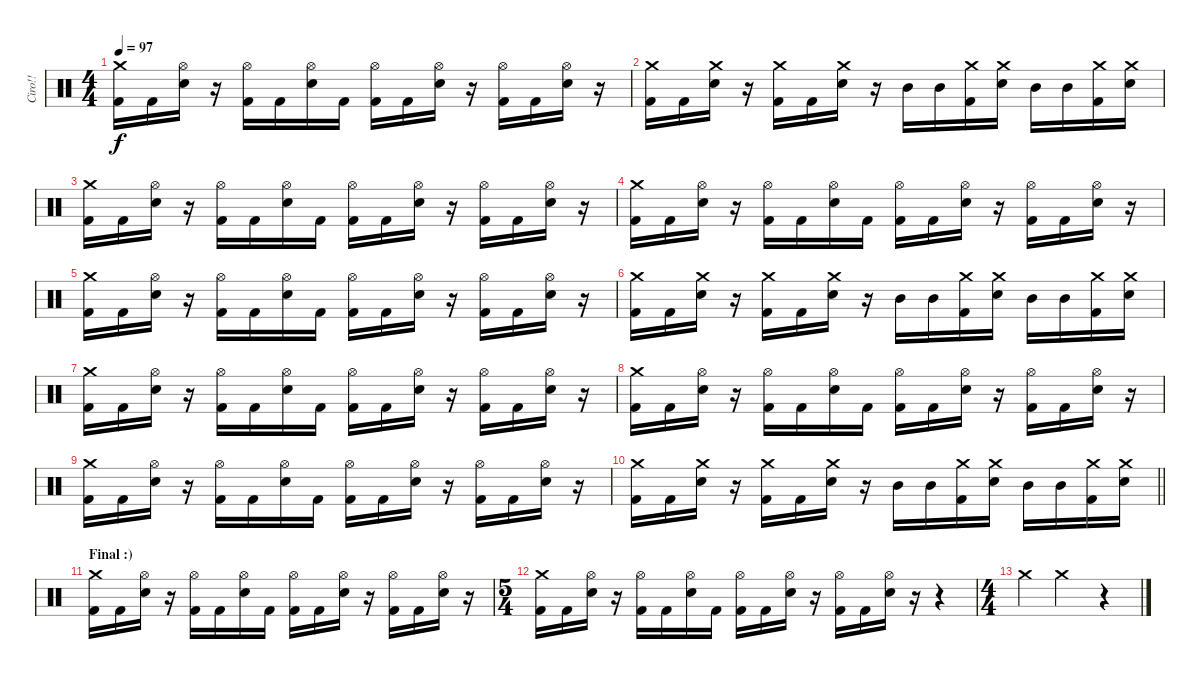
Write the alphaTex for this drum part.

\track ("Ciro!!" "Ciro!!") {instrument percussion}
\staff {score}
\articulation defaults
\ts (4 4)
\tempo 97
\clef neutral
\ks c
("Crash medium (hit)" "Kick (hit) 2").16{dy f} "Kick (hit) 2".16 ("Hi-Hat (open)" "Electric Snare (hit)").16 r.16 ("Hi-Hat (open)" "Kick (hit) 2").16 "Kick (hit) 2".16 ("Hi-Hat (open)" "Electric Snare (hit)").16 "Kick (hit) 2".16 ("Hi-Hat (open)" "Kick (hit) 2").16 "Kick (hit) 2".16 ("Hi-Hat (open)" "Electric Snare (hit)").16 r.16 ("Hi-Hat (open)" "Kick (hit) 2").16 "Kick (hit) 2".16 ("Hi-Hat (open)" "Electric Snare (hit)").16 r.16 |
("Crash medium (hit)" "Kick (hit) 2").16 "Kick (hit) 2".16 ("Crash medium (hit)" "Electric Snare (hit)").16 r.16 ("Crash medium (hit)" "Kick (hit) 2").16 "Kick (hit) 2".16 ("Crash medium (hit)" "Electric Snare (hit)").16 r.16 "Mid Tom (hit)".16 "Mid Tom (hit)".16 ("Crash medium (hit)" "Kick (hit) 2").16 ("Crash medium (hit)" "Electric Snare (hit)").16 "Mid Tom (hit)".16 "Mid Tom (hit)".16 ("Crash medium (hit)" "Kick (hit) 2").16 ("Crash medium (hit)" "Electric Snare (hit)").16 |
("Crash medium (hit)" "Kick (hit) 2").16 "Kick (hit) 2".16 ("Hi-Hat (open)" "Electric Snare (hit)").16 r.16 ("Hi-Hat (open)" "Kick (hit) 2").16 "Kick (hit) 2".16 ("Hi-Hat (open)" "Electric Snare (hit)").16 "Kick (hit) 2".16 ("Hi-Hat (open)" "Kick (hit) 2").16 "Kick (hit) 2".16 ("Hi-Hat (open)" "Electric Snare (hit)").16 r.16 ("Hi-Hat (open)" "Kick (hit) 2").16 "Kick (hit) 2".16 ("Hi-Hat (open)" "Electric Snare (hit)").16 r.16 |
("Crash medium (hit)" "Kick (hit) 2").16 "Kick (hit) 2".16 ("Hi-Hat (open)" "Electric Snare (hit)").16 r.16 ("Hi-Hat (open)" "Kick (hit) 2").16 "Kick (hit) 2".16 ("Hi-Hat (open)" "Electric Snare (hit)").16 "Kick (hit) 2".16 ("Hi-Hat (open)" "Kick (hit) 2").16 "Kick (hit) 2".16 ("Hi-Hat (open)" "Electric Snare (hit)").16 r.16 ("Hi-Hat (open)" "Kick (hit) 2").16 "Kick (hit) 2".16 ("Hi-Hat (open)" "Electric Snare (hit)").16 r.16 |
("Crash medium (hit)" "Kick (hit) 2").16 "Kick (hit) 2".16 ("Hi-Hat (open)" "Electric Snare (hit)").16 r.16 ("Hi-Hat (open)" "Kick (hit) 2").16 "Kick (hit) 2".16 ("Hi-Hat (open)" "Electric Snare (hit)").16 "Kick (hit) 2".16 ("Hi-Hat (open)" "Kick (hit) 2").16 "Kick (hit) 2".16 ("Hi-Hat (open)" "Electric Snare (hit)").16 r.16 ("Hi-Hat (open)" "Kick (hit) 2").16 "Kick (hit) 2".16 ("Hi-Hat (open)" "Electric Snare (hit)").16 r.16 |
("Crash medium (hit)" "Kick (hit) 2").16 "Kick (hit) 2".16 ("Crash medium (hit)" "Electric Snare (hit)").16 r.16 ("Crash medium (hit)" "Kick (hit) 2").16 "Kick (hit) 2".16 ("Crash medium (hit)" "Electric Snare (hit)").16 r.16 "Mid Tom (hit)".16 "Mid Tom (hit)".16 ("Crash medium (hit)" "Kick (hit) 2").16 ("Crash medium (hit)" "Electric Snare (hit)").16 "Mid Tom (hit)".16 "Mid Tom (hit)".16 ("Crash medium (hit)" "Kick (hit) 2").16 ("Crash medium (hit)" "Electric Snare (hit)").16 |
("Crash medium (hit)" "Kick (hit) 2").16 "Kick (hit) 2".16 ("Hi-Hat (open)" "Electric Snare (hit)").16 r.16 ("Hi-Hat (open)" "Kick (hit) 2").16 "Kick (hit) 2".16 ("Hi-Hat (open)" "Electric Snare (hit)").16 "Kick (hit) 2".16 ("Hi-Hat (open)" "Kick (hit) 2").16 "Kick (hit) 2".16 ("Hi-Hat (open)" "Electric Snare (hit)").16 r.16 ("Hi-Hat (open)" "Kick (hit) 2").16 "Kick (hit) 2".16 ("Hi-Hat (open)" "Electric Snare (hit)").16 r.16 |
("Crash medium (hit)" "Kick (hit) 2").16 "Kick (hit) 2".16 ("Hi-Hat (open)" "Electric Snare (hit)").16 r.16 ("Hi-Hat (open)" "Kick (hit) 2").16 "Kick (hit) 2".16 ("Hi-Hat (open)" "Electric Snare (hit)").16 "Kick (hit) 2".16 ("Hi-Hat (open)" "Kick (hit) 2").16 "Kick (hit) 2".16 ("Hi-Hat (open)" "Electric Snare (hit)").16 r.16 ("Hi-Hat (open)" "Kick (hit) 2").16 "Kick (hit) 2".16 ("Hi-Hat (open)" "Electric Snare (hit)").16 r.16 |
("Crash medium (hit)" "Kick (hit) 2").16 "Kick (hit) 2".16 ("Hi-Hat (open)" "Electric Snare (hit)").16 r.16 ("Hi-Hat (open)" "Kick (hit) 2").16 "Kick (hit) 2".16 ("Hi-Hat (open)" "Electric Snare (hit)").16 "Kick (hit) 2".16 ("Hi-Hat (open)" "Kick (hit) 2").16 "Kick (hit) 2".16 ("Hi-Hat (open)" "Electric Snare (hit)").16 r.16 ("Hi-Hat (open)" "Kick (hit) 2").16 "Kick (hit) 2".16 ("Hi-Hat (open)" "Electric Snare (hit)").16 r.16 |
\barLineRight lightlight
("Crash medium (hit)" "Kick (hit) 2").16 "Kick (hit) 2".16 ("Crash medium (hit)" "Electric Snare (hit)").16 r.16 ("Crash medium (hit)" "Kick (hit) 2").16 "Kick (hit) 2".16 ("Crash medium (hit)" "Electric Snare (hit)").16 r.16 "Mid Tom (hit)".16 "Mid Tom (hit)".16 ("Crash medium (hit)" "Kick (hit) 2").16 ("Crash medium (hit)" "Electric Snare (hit)").16 "Mid Tom (hit)".16 "Mid Tom (hit)".16 ("Crash medium (hit)" "Kick (hit) 2").16 ("Crash medium (hit)" "Electric Snare (hit)").16 |
\section ("" "Final :)")
("Crash medium (hit)" "Kick (hit) 2").16 "Kick (hit) 2".16 ("Hi-Hat (open)" "Electric Snare (hit)").16 r.16 ("Hi-Hat (open)" "Kick (hit) 2").16 "Kick (hit) 2".16 ("Hi-Hat (open)" "Electric Snare (hit)").16 "Kick (hit) 2".16 ("Hi-Hat (open)" "Kick (hit) 2").16 "Kick (hit) 2".16 ("Hi-Hat (open)" "Electric Snare (hit)").16 r.16 ("Hi-Hat (open)" "Kick (hit) 2").16 "Kick (hit) 2".16 ("Hi-Hat (open)" "Electric Snare (hit)").16 r.16 |
\ts (5 4)
("Crash medium (hit)" "Kick (hit) 2").16 "Kick (hit) 2".16 ("Hi-Hat (open)" "Electric Snare (hit)").16 r.16 ("Hi-Hat (open)" "Kick (hit) 2").16 "Kick (hit) 2".16 ("Hi-Hat (open)" "Electric Snare (hit)").16 "Kick (hit) 2".16 ("Hi-Hat (open)" "Kick (hit) 2").16 "Kick (hit) 2".16 ("Hi-Hat (open)" "Electric Snare (hit)").16 r.16 ("Hi-Hat (open)" "Kick (hit) 2").16 "Kick (hit) 2".16 ("Hi-Hat (open)" "Electric Snare (hit)").16 r.16 r.4 |
\ts (4 4)
"Crash medium (hit)".4 "Crash medium (hit)".2 r.4
